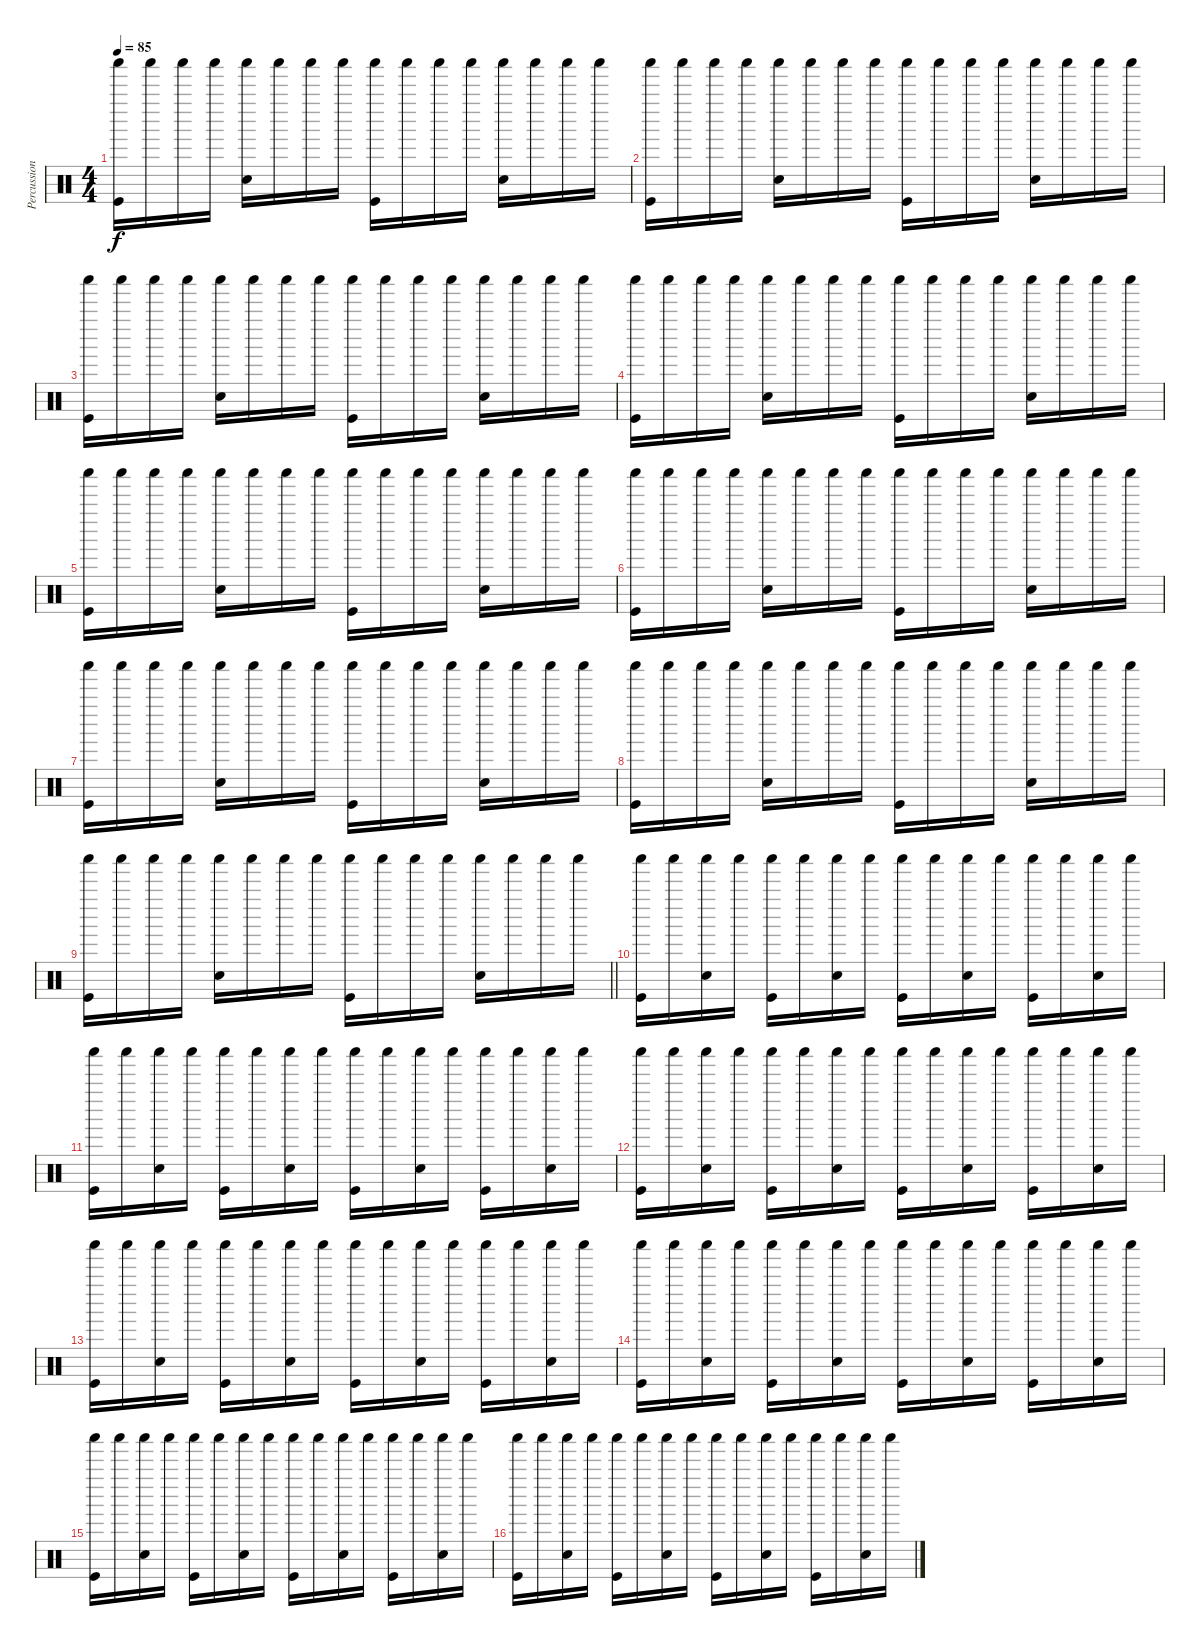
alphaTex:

\track ("Percussion" "Percussion") {instrument percussion}
\staff {score}
\articulation defaults
\ts (4 4)
\tempo 85
\clef neutral
\ks c
("Shaker (hit)" "Kick (hit)").16{dy f} "Shaker (hit)".16 "Shaker (hit)".16 "Shaker (hit)".16 ("Shaker (hit)" "Snare (hit) 2").16 "Shaker (hit)".16 "Shaker (hit)".16 "Shaker (hit)".16 ("Shaker (hit)" "Kick (hit)").16 "Shaker (hit)".16 "Shaker (hit)".16 "Shaker (hit)".16 ("Shaker (hit)" "Snare (hit) 2").16 "Shaker (hit)".16 "Shaker (hit)".16 "Shaker (hit)".16 |
("Shaker (hit)" "Kick (hit)").16 "Shaker (hit)".16 "Shaker (hit)".16 "Shaker (hit)".16 ("Shaker (hit)" "Snare (hit) 2").16 "Shaker (hit)".16 "Shaker (hit)".16 "Shaker (hit)".16 ("Shaker (hit)" "Kick (hit)").16 "Shaker (hit)".16 "Shaker (hit)".16 "Shaker (hit)".16 ("Shaker (hit)" "Snare (hit) 2").16 "Shaker (hit)".16 "Shaker (hit)".16 "Shaker (hit)".16 |
("Shaker (hit)" "Kick (hit)").16 "Shaker (hit)".16 "Shaker (hit)".16 "Shaker (hit)".16 ("Shaker (hit)" "Snare (hit) 2").16 "Shaker (hit)".16 "Shaker (hit)".16 "Shaker (hit)".16 ("Shaker (hit)" "Kick (hit)").16 "Shaker (hit)".16 "Shaker (hit)".16 "Shaker (hit)".16 ("Shaker (hit)" "Snare (hit) 2").16 "Shaker (hit)".16 "Shaker (hit)".16 "Shaker (hit)".16 |
("Shaker (hit)" "Kick (hit)").16 "Shaker (hit)".16 "Shaker (hit)".16 "Shaker (hit)".16 ("Shaker (hit)" "Snare (hit) 2").16 "Shaker (hit)".16 "Shaker (hit)".16 "Shaker (hit)".16 ("Shaker (hit)" "Kick (hit)").16 "Shaker (hit)".16 "Shaker (hit)".16 "Shaker (hit)".16 ("Shaker (hit)" "Snare (hit) 2").16 "Shaker (hit)".16 "Shaker (hit)".16 "Shaker (hit)".16 |
("Shaker (hit)" "Kick (hit)").16 "Shaker (hit)".16 "Shaker (hit)".16 "Shaker (hit)".16 ("Shaker (hit)" "Snare (hit) 2").16 "Shaker (hit)".16 "Shaker (hit)".16 "Shaker (hit)".16 ("Shaker (hit)" "Kick (hit)").16 "Shaker (hit)".16 "Shaker (hit)".16 "Shaker (hit)".16 ("Shaker (hit)" "Snare (hit) 2").16 "Shaker (hit)".16 "Shaker (hit)".16 "Shaker (hit)".16 |
("Shaker (hit)" "Kick (hit)").16 "Shaker (hit)".16 "Shaker (hit)".16 "Shaker (hit)".16 ("Shaker (hit)" "Snare (hit) 2").16 "Shaker (hit)".16 "Shaker (hit)".16 "Shaker (hit)".16 ("Shaker (hit)" "Kick (hit)").16 "Shaker (hit)".16 "Shaker (hit)".16 "Shaker (hit)".16 ("Shaker (hit)" "Snare (hit) 2").16 "Shaker (hit)".16 "Shaker (hit)".16 "Shaker (hit)".16 |
("Shaker (hit)" "Kick (hit)").16 "Shaker (hit)".16 "Shaker (hit)".16 "Shaker (hit)".16 ("Shaker (hit)" "Snare (hit) 2").16 "Shaker (hit)".16 "Shaker (hit)".16 "Shaker (hit)".16 ("Shaker (hit)" "Kick (hit)").16 "Shaker (hit)".16 "Shaker (hit)".16 "Shaker (hit)".16 ("Shaker (hit)" "Snare (hit) 2").16 "Shaker (hit)".16 "Shaker (hit)".16 "Shaker (hit)".16 |
("Shaker (hit)" "Kick (hit)").16 "Shaker (hit)".16 "Shaker (hit)".16 "Shaker (hit)".16 ("Shaker (hit)" "Snare (hit) 2").16 "Shaker (hit)".16 "Shaker (hit)".16 "Shaker (hit)".16 ("Shaker (hit)" "Kick (hit)").16 "Shaker (hit)".16 "Shaker (hit)".16 "Shaker (hit)".16 ("Shaker (hit)" "Snare (hit) 2").16 "Shaker (hit)".16 "Shaker (hit)".16 "Shaker (hit)".16 |
\barLineRight lightlight
("Shaker (hit)" "Kick (hit)").16 "Shaker (hit)".16 "Shaker (hit)".16 "Shaker (hit)".16 ("Shaker (hit)" "Snare (hit) 2").16 "Shaker (hit)".16 "Shaker (hit)".16 "Shaker (hit)".16 ("Shaker (hit)" "Kick (hit)").16 "Shaker (hit)".16 "Shaker (hit)".16 "Shaker (hit)".16 ("Shaker (hit)" "Snare (hit) 2").16 "Shaker (hit)".16 "Shaker (hit)".16 "Shaker (hit)".16 |
("Shaker (hit)" "Kick (hit)").16 "Shaker (hit)".16 ("Shaker (hit)" "Snare (hit) 2").16 "Shaker (hit)".16 ("Shaker (hit)" "Kick (hit)").16 "Shaker (hit)".16 ("Shaker (hit)" "Snare (hit) 2").16 "Shaker (hit)".16 ("Shaker (hit)" "Kick (hit)").16 "Shaker (hit)".16 ("Shaker (hit)" "Snare (hit) 2").16 "Shaker (hit)".16 ("Shaker (hit)" "Kick (hit)").16 "Shaker (hit)".16 ("Shaker (hit)" "Snare (hit) 2").16 "Shaker (hit)".16 |
("Shaker (hit)" "Kick (hit)").16 "Shaker (hit)".16 ("Shaker (hit)" "Snare (hit) 2").16 "Shaker (hit)".16 ("Shaker (hit)" "Kick (hit)").16 "Shaker (hit)".16 ("Shaker (hit)" "Snare (hit) 2").16 "Shaker (hit)".16 ("Shaker (hit)" "Kick (hit)").16 "Shaker (hit)".16 ("Shaker (hit)" "Snare (hit) 2").16 "Shaker (hit)".16 ("Shaker (hit)" "Kick (hit)").16 "Shaker (hit)".16 ("Shaker (hit)" "Snare (hit) 2").16 "Shaker (hit)".16 |
("Shaker (hit)" "Kick (hit)").16 "Shaker (hit)".16 ("Shaker (hit)" "Snare (hit) 2").16 "Shaker (hit)".16 ("Shaker (hit)" "Kick (hit)").16 "Shaker (hit)".16 ("Shaker (hit)" "Snare (hit) 2").16 "Shaker (hit)".16 ("Shaker (hit)" "Kick (hit)").16 "Shaker (hit)".16 ("Shaker (hit)" "Snare (hit) 2").16 "Shaker (hit)".16 ("Shaker (hit)" "Kick (hit)").16 "Shaker (hit)".16 ("Shaker (hit)" "Snare (hit) 2").16 "Shaker (hit)".16 |
("Shaker (hit)" "Kick (hit)").16 "Shaker (hit)".16 ("Shaker (hit)" "Snare (hit) 2").16 "Shaker (hit)".16 ("Shaker (hit)" "Kick (hit)").16 "Shaker (hit)".16 ("Shaker (hit)" "Snare (hit) 2").16 "Shaker (hit)".16 ("Shaker (hit)" "Kick (hit)").16 "Shaker (hit)".16 ("Shaker (hit)" "Snare (hit) 2").16 "Shaker (hit)".16 ("Shaker (hit)" "Kick (hit)").16 "Shaker (hit)".16 ("Shaker (hit)" "Snare (hit) 2").16 "Shaker (hit)".16 |
("Shaker (hit)" "Kick (hit)").16 "Shaker (hit)".16 ("Shaker (hit)" "Snare (hit) 2").16 "Shaker (hit)".16 ("Shaker (hit)" "Kick (hit)").16 "Shaker (hit)".16 ("Shaker (hit)" "Snare (hit) 2").16 "Shaker (hit)".16 ("Shaker (hit)" "Kick (hit)").16 "Shaker (hit)".16 ("Shaker (hit)" "Snare (hit) 2").16 "Shaker (hit)".16 ("Shaker (hit)" "Kick (hit)").16 "Shaker (hit)".16 ("Shaker (hit)" "Snare (hit) 2").16 "Shaker (hit)".16 |
("Shaker (hit)" "Kick (hit)").16 "Shaker (hit)".16 ("Shaker (hit)" "Snare (hit) 2").16 "Shaker (hit)".16 ("Shaker (hit)" "Kick (hit)").16 "Shaker (hit)".16 ("Shaker (hit)" "Snare (hit) 2").16 "Shaker (hit)".16 ("Shaker (hit)" "Kick (hit)").16 "Shaker (hit)".16 ("Shaker (hit)" "Snare (hit) 2").16 "Shaker (hit)".16 ("Shaker (hit)" "Kick (hit)").16 "Shaker (hit)".16 ("Shaker (hit)" "Snare (hit) 2").16 "Shaker (hit)".16 |
("Shaker (hit)" "Kick (hit)").16 "Shaker (hit)".16 ("Shaker (hit)" "Snare (hit) 2").16 "Shaker (hit)".16 ("Shaker (hit)" "Kick (hit)").16 "Shaker (hit)".16 ("Shaker (hit)" "Snare (hit) 2").16 "Shaker (hit)".16 ("Shaker (hit)" "Kick (hit)").16 "Shaker (hit)".16 ("Shaker (hit)" "Snare (hit) 2").16 "Shaker (hit)".16 ("Shaker (hit)" "Kick (hit)").16 "Shaker (hit)".16 ("Shaker (hit)" "Snare (hit) 2").16 "Shaker (hit)".16
